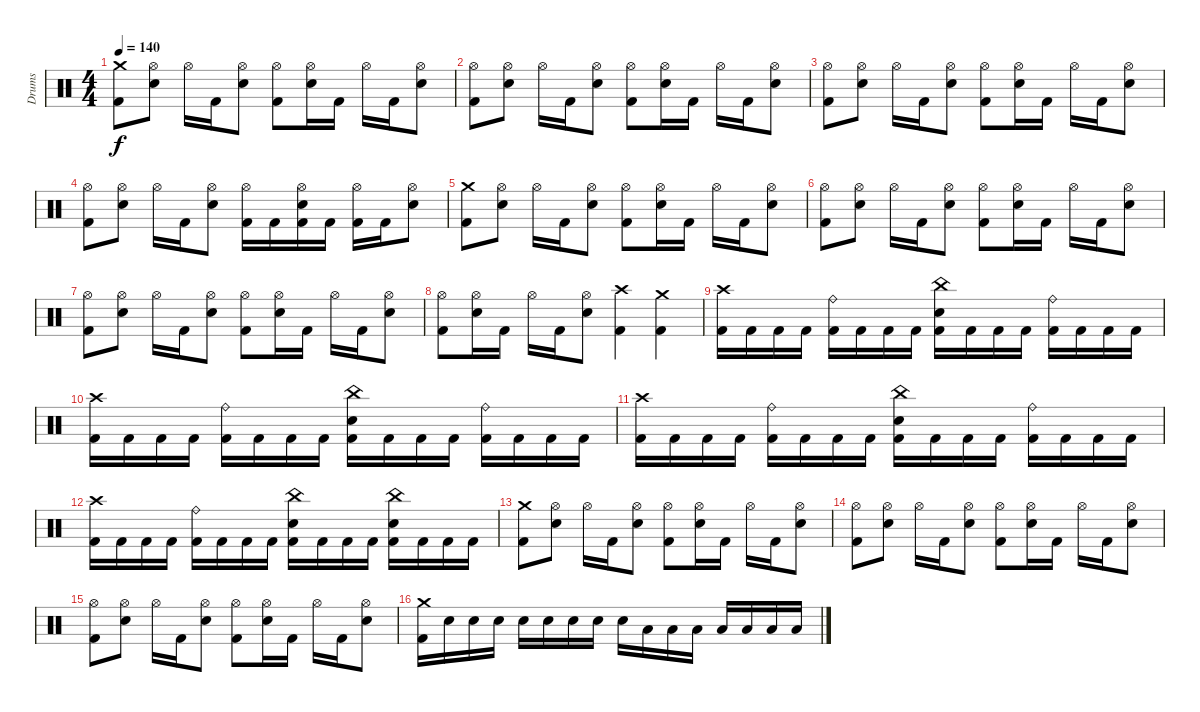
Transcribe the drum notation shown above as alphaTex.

\track ("Drums" "Drums") {instrument percussion}
\staff {score}
\articulation defaults
\ts (4 4)
\tempo 140
\clef neutral
\ks c
("Crash medium (hit)" "Kick (hit) 2").8{dy f} ("Hi-Hat (open)" "Electric Snare (hit)").8 "Hi-Hat (open)".16 "Kick (hit) 2".16 ("Hi-Hat (open)" "Electric Snare (hit)").8 ("Hi-Hat (open)" "Kick (hit) 2").8 ("Hi-Hat (open)" "Electric Snare (hit)").16 "Kick (hit) 2".16 "Hi-Hat (open)".16 "Kick (hit) 2".16 ("Hi-Hat (open)" "Electric Snare (hit)").8 |
("Hi-Hat (open)" "Kick (hit) 2").8 ("Hi-Hat (open)" "Electric Snare (hit)").8 "Hi-Hat (open)".16 "Kick (hit) 2".16 ("Hi-Hat (open)" "Electric Snare (hit)").8 ("Hi-Hat (open)" "Kick (hit) 2").8 ("Hi-Hat (open)" "Electric Snare (hit)").16 "Kick (hit) 2".16 "Hi-Hat (open)".16 "Kick (hit) 2".16 ("Hi-Hat (open)" "Electric Snare (hit)").8 |
("Hi-Hat (open)" "Kick (hit) 2").8 ("Hi-Hat (open)" "Electric Snare (hit)").8 "Hi-Hat (open)".16 "Kick (hit) 2".16 ("Hi-Hat (open)" "Electric Snare (hit)").8 ("Hi-Hat (open)" "Kick (hit) 2").8 ("Hi-Hat (open)" "Electric Snare (hit)").16 "Kick (hit) 2".16 "Hi-Hat (open)".16 "Kick (hit) 2".16 ("Hi-Hat (open)" "Electric Snare (hit)").8 |
("Hi-Hat (open)" "Kick (hit) 2").8 ("Hi-Hat (open)" "Electric Snare (hit)").8 "Hi-Hat (open)".16 "Kick (hit) 2".16 ("Hi-Hat (open)" "Electric Snare (hit)").8 ("Hi-Hat (open)" "Kick (hit) 2").16 "Kick (hit) 2".16 ("Hi-Hat (open)" "Electric Snare (hit)" "Kick (hit) 2").16 "Kick (hit) 2".16 ("Hi-Hat (open)" "Kick (hit) 2").16 "Kick (hit) 2".16 ("Hi-Hat (open)" "Electric Snare (hit)").8 |
("Crash medium (hit)" "Kick (hit) 2").8 ("Hi-Hat (open)" "Electric Snare (hit)").8 "Hi-Hat (open)".16 "Kick (hit) 2".16 ("Hi-Hat (open)" "Electric Snare (hit)").8 ("Hi-Hat (open)" "Kick (hit) 2").8 ("Hi-Hat (open)" "Electric Snare (hit)").16 "Kick (hit) 2".16 "Hi-Hat (open)".16 "Kick (hit) 2".16 ("Hi-Hat (open)" "Electric Snare (hit)").8 |
("Hi-Hat (open)" "Kick (hit) 2").8 ("Hi-Hat (open)" "Electric Snare (hit)").8 "Hi-Hat (open)".16 "Kick (hit) 2".16 ("Hi-Hat (open)" "Electric Snare (hit)").8 ("Hi-Hat (open)" "Kick (hit) 2").8 ("Hi-Hat (open)" "Electric Snare (hit)").16 "Kick (hit) 2".16 "Hi-Hat (open)".16 "Kick (hit) 2".16 ("Hi-Hat (open)" "Electric Snare (hit)").8 |
("Hi-Hat (open)" "Kick (hit) 2").8 ("Hi-Hat (open)" "Electric Snare (hit)").8 "Hi-Hat (open)".16 "Kick (hit) 2".16 ("Hi-Hat (open)" "Electric Snare (hit)").8 ("Hi-Hat (open)" "Kick (hit) 2").8 ("Hi-Hat (open)" "Electric Snare (hit)").16 "Kick (hit) 2".16 "Hi-Hat (open)".16 "Kick (hit) 2".16 ("Hi-Hat (open)" "Electric Snare (hit)").8 |
("Hi-Hat (open)" "Kick (hit) 2").8 ("Hi-Hat (open)" "Electric Snare (hit)").16 "Kick (hit) 2".16 "Hi-Hat (open)".16 "Kick (hit) 2".16 ("Hi-Hat (open)" "Electric Snare (hit)").8 ("Crash high (hit)" "Kick (hit) 2").4 ("Crash medium (hit)" "Kick (hit) 2").4 |
("Crash high (hit)" "Kick (hit) 2").16 "Kick (hit) 2".16 "Kick (hit) 2".16 "Kick (hit) 2".16 ("Ride (bell)" "Kick (hit) 2").16 "Kick (hit) 2".16 "Kick (hit) 2".16 "Kick (hit) 2".16 ("China (hit)" "Electric Snare (hit)" "Kick (hit) 2").16 "Kick (hit) 2".16 "Kick (hit) 2".16 "Kick (hit) 2".16 ("Ride (bell)" "Kick (hit) 2").16 "Kick (hit) 2".16 "Kick (hit) 2".16 "Kick (hit) 2".16 |
("Crash high (hit)" "Kick (hit) 2").16 "Kick (hit) 2".16 "Kick (hit) 2".16 "Kick (hit) 2".16 ("Ride (bell)" "Kick (hit) 2").16 "Kick (hit) 2".16 "Kick (hit) 2".16 "Kick (hit) 2".16 ("China (hit)" "Electric Snare (hit)" "Kick (hit) 2").16 "Kick (hit) 2".16 "Kick (hit) 2".16 "Kick (hit) 2".16 ("Ride (bell)" "Kick (hit) 2").16 "Kick (hit) 2".16 "Kick (hit) 2".16 "Kick (hit) 2".16 |
("Crash high (hit)" "Kick (hit) 2").16 "Kick (hit) 2".16 "Kick (hit) 2".16 "Kick (hit) 2".16 ("Ride (bell)" "Kick (hit) 2").16 "Kick (hit) 2".16 "Kick (hit) 2".16 "Kick (hit) 2".16 ("China (hit)" "Electric Snare (hit)" "Kick (hit) 2").16 "Kick (hit) 2".16 "Kick (hit) 2".16 "Kick (hit) 2".16 ("Ride (bell)" "Kick (hit) 2").16 "Kick (hit) 2".16 "Kick (hit) 2".16 "Kick (hit) 2".16 |
("Crash high (hit)" "Kick (hit) 2").16 "Kick (hit) 2".16 "Kick (hit) 2".16 "Kick (hit) 2".16 ("Ride (bell)" "Kick (hit) 2").16 "Kick (hit) 2".16 "Kick (hit) 2".16 "Kick (hit) 2".16 ("China (hit)" "Electric Snare (hit)" "Kick (hit) 2").16 "Kick (hit) 2".16 "Kick (hit) 2".16 "Kick (hit) 2".16 ("China (hit)" "Electric Snare (hit)" "Kick (hit) 2").16 "Kick (hit) 2".16 "Kick (hit) 2".16 "Kick (hit) 2".16 |
("Crash medium (hit)" "Kick (hit) 2").8 ("Hi-Hat (open)" "Electric Snare (hit)").8 "Hi-Hat (open)".16 "Kick (hit) 2".16 ("Hi-Hat (open)" "Electric Snare (hit)").8 ("Hi-Hat (open)" "Kick (hit) 2").8 ("Hi-Hat (open)" "Electric Snare (hit)").16 "Kick (hit) 2".16 "Hi-Hat (open)".16 "Kick (hit) 2".16 ("Hi-Hat (open)" "Electric Snare (hit)").8 |
("Hi-Hat (open)" "Kick (hit) 2").8 ("Hi-Hat (open)" "Electric Snare (hit)").8 "Hi-Hat (open)".16 "Kick (hit) 2".16 ("Hi-Hat (open)" "Electric Snare (hit)").8 ("Hi-Hat (open)" "Kick (hit) 2").8 ("Hi-Hat (open)" "Electric Snare (hit)").16 "Kick (hit) 2".16 "Hi-Hat (open)".16 "Kick (hit) 2".16 ("Hi-Hat (open)" "Electric Snare (hit)").8 |
("Hi-Hat (open)" "Kick (hit) 2").8 ("Hi-Hat (open)" "Electric Snare (hit)").8 "Hi-Hat (open)".16 "Kick (hit) 2".16 ("Hi-Hat (open)" "Electric Snare (hit)").8 ("Hi-Hat (open)" "Kick (hit) 2").8 ("Hi-Hat (open)" "Electric Snare (hit)").16 "Kick (hit) 2".16 "Hi-Hat (open)".16 "Kick (hit) 2".16 ("Hi-Hat (open)" "Electric Snare (hit)").8 |
("Crash medium (hit)" "Kick (hit) 2").16 "Electric Snare (hit)".16 "Electric Snare (hit)".16 "Electric Snare (hit)".16 "Electric Snare (hit)".16 "Electric Snare (hit)".16 "Electric Snare (hit)".16 "Electric Snare (hit)".16 "Electric Snare (hit)".16 "Low Tom (hit)".16 "Low Tom (hit)".16 "Low Tom (hit)".16 "Low Floor Tom (hit)".16 "Low Floor Tom (hit)".16 "Low Floor Tom (hit)".16 "Low Floor Tom (hit)".16
